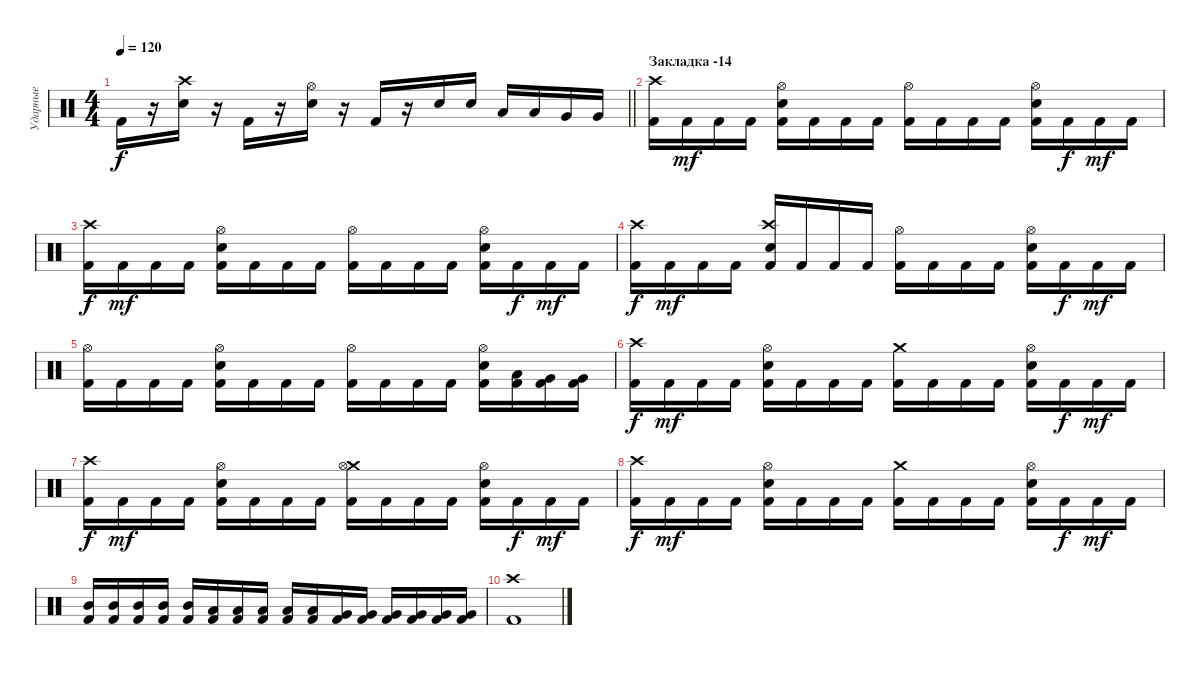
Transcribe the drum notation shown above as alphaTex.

\track ("Ударные" "Ударные") {instrument percussion}
\staff {score}
\articulation defaults
\ts (4 4)
\tempo 120
\clef neutral
\barLineRight lightlight
\ks c "Kick (hit) 2".16{dy f}
r.16 ("Crash high (hit)" "Electric Snare (hit)").16 r.16 "Kick (hit) 2".16 r.16 ("Hi-Hat (open)" "Electric Snare (hit)").16 r.16 "Kick (hit) 2".16 r.16 "Electric Snare (hit)".16 "Electric Snare (hit)".16 "Low Tom (hit)".16 "Low Tom (hit)".16 "Very Low Tom (hit)".16 "Very Low Tom (hit)".16 |
\section ("" "Закладка -14")
("Crash high (hit)" "Kick (hit) 2").16 "Kick (hit) 2".16{dy mf} "Kick (hit) 2".16 "Kick (hit) 2".16 ("Hi-Hat (open)" "Electric Snare (hit)" "Kick (hit) 2").16 "Kick (hit) 2".16 "Kick (hit) 2".16 "Kick (hit) 2".16 ("Hi-Hat (open)" "Kick (hit) 2").16 "Kick (hit) 2".16 "Kick (hit) 2".16 "Kick (hit) 2".16 ("Hi-Hat (open)" "Electric Snare (hit)" "Kick (hit) 2").16 "Kick (hit) 2".16{dy f} "Kick (hit) 2".16{dy mf} "Kick (hit) 2".16 |
("Crash high (hit)" "Kick (hit) 2").16{dy f} "Kick (hit) 2".16{dy mf} "Kick (hit) 2".16 "Kick (hit) 2".16 ("Hi-Hat (open)" "Electric Snare (hit)" "Kick (hit) 2").16 "Kick (hit) 2".16 "Kick (hit) 2".16 "Kick (hit) 2".16 ("Hi-Hat (open)" "Kick (hit) 2").16 "Kick (hit) 2".16 "Kick (hit) 2".16 "Kick (hit) 2".16 ("Hi-Hat (open)" "Electric Snare (hit)" "Kick (hit) 2").16 "Kick (hit) 2".16{dy f} "Kick (hit) 2".16{dy mf} "Kick (hit) 2".16 |
("Crash high (hit)" "Kick (hit) 2").16{dy f} "Kick (hit) 2".16{dy mf} "Kick (hit) 2".16 "Kick (hit) 2".16 ("Crash high (hit)" "Electric Snare (hit)" "Kick (hit) 2").16 "Kick (hit) 2".16 "Kick (hit) 2".16 "Kick (hit) 2".16 ("Hi-Hat (open)" "Kick (hit) 2").16 "Kick (hit) 2".16 "Kick (hit) 2".16 "Kick (hit) 2".16 ("Hi-Hat (open)" "Electric Snare (hit)" "Kick (hit) 2").16 "Kick (hit) 2".16{dy f} "Kick (hit) 2".16{dy mf} "Kick (hit) 2".16 |
("Hi-Hat (open)" "Kick (hit) 2").16 "Kick (hit) 2".16 "Kick (hit) 2".16 "Kick (hit) 2".16 ("Hi-Hat (open)" "Electric Snare (hit)" "Kick (hit) 2").16 "Kick (hit) 2".16 "Kick (hit) 2".16 "Kick (hit) 2".16 ("Hi-Hat (open)" "Kick (hit) 2").16 "Kick (hit) 2".16 "Kick (hit) 2".16 "Kick (hit) 2".16 ("Hi-Hat (open)" "Electric Snare (hit)" "Kick (hit) 2").16 ("Low Tom (hit)" "Kick (hit) 2").16 ("Very Low Tom (hit)" "Kick (hit) 2").16 ("Very Low Tom (hit)" "Kick (hit) 2").16 |
("Crash high (hit)" "Kick (hit) 2").16{dy f} "Kick (hit) 2".16{dy mf} "Kick (hit) 2".16 "Kick (hit) 2".16 ("Hi-Hat (open)" "Electric Snare (hit)" "Kick (hit) 2").16 "Kick (hit) 2".16 "Kick (hit) 2".16 "Kick (hit) 2".16 ("Crash medium (hit)" "Kick (hit) 2").16 "Kick (hit) 2".16 "Kick (hit) 2".16 "Kick (hit) 2".16 ("Hi-Hat (open)" "Electric Snare (hit)" "Kick (hit) 2").16 "Kick (hit) 2".16{dy f} "Kick (hit) 2".16{dy mf} "Kick (hit) 2".16 |
("Crash high (hit)" "Kick (hit) 2").16{dy f} "Kick (hit) 2".16{dy mf} "Kick (hit) 2".16 "Kick (hit) 2".16 ("Hi-Hat (open)" "Electric Snare (hit)" "Kick (hit) 2").16 "Kick (hit) 2".16 "Kick (hit) 2".16 "Kick (hit) 2".16 ("Crash medium (hit)" "Hi-Hat (open)" "Kick (hit) 2").16 "Kick (hit) 2".16 "Kick (hit) 2".16 "Kick (hit) 2".16 ("Hi-Hat (open)" "Electric Snare (hit)" "Kick (hit) 2").16 "Kick (hit) 2".16{dy f} "Kick (hit) 2".16{dy mf} "Kick (hit) 2".16 |
("Crash high (hit)" "Kick (hit) 2").16{dy f} "Kick (hit) 2".16{dy mf} "Kick (hit) 2".16 "Kick (hit) 2".16 ("Hi-Hat (open)" "Electric Snare (hit)" "Kick (hit) 2").16 "Kick (hit) 2".16 "Kick (hit) 2".16 "Kick (hit) 2".16 ("Crash medium (hit)" "Kick (hit) 2").16 "Kick (hit) 2".16 "Kick (hit) 2".16 "Kick (hit) 2".16 ("Hi-Hat (open)" "Electric Snare (hit)" "Kick (hit) 2").16 "Kick (hit) 2".16{dy f} "Kick (hit) 2".16{dy mf} "Kick (hit) 2".16 |
("Mid Tom (hit)" "Kick (hit) 2").16 ("Mid Tom (hit)" "Kick (hit) 2").16 ("Mid Tom (hit)" "Kick (hit) 2").16 ("Mid Tom (hit)" "Kick (hit) 2").16 ("Mid Tom (hit)" "Kick (hit) 2").16 ("Low Tom (hit)" "Kick (hit) 2").16 ("Low Tom (hit)" "Kick (hit) 2").16 ("Low Tom (hit)" "Kick (hit) 2").16 ("Low Tom (hit)" "Kick (hit) 2").16 ("Low Tom (hit)" "Kick (hit) 2").16 ("Very Low Tom (hit)" "Kick (hit) 2").16 ("Very Low Tom (hit)" "Kick (hit) 2").16 ("Very Low Tom (hit)" "Kick (hit) 2").16 ("Very Low Tom (hit)" "Kick (hit) 2").16 ("Very Low Tom (hit)" "Kick (hit) 2").16 ("Very Low Tom (hit)" "Kick (hit) 2").16 |
("Crash high (hit)" "Kick (hit) 2").1
